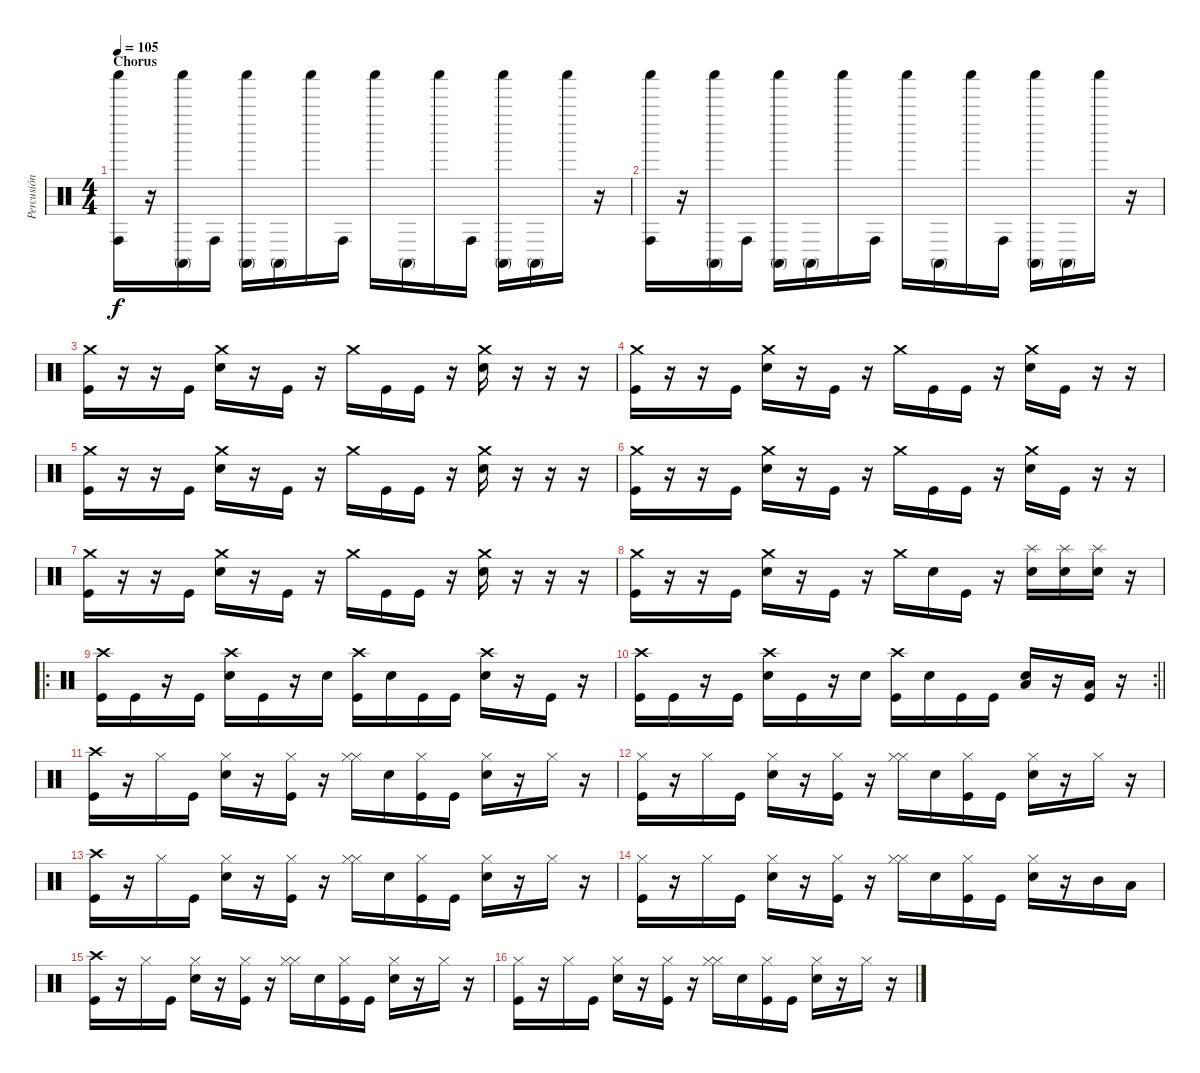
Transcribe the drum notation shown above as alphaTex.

\track ("Percusión" "Percusión") {instrument percussion}
\staff {score}
\articulation defaults
\ts (4 4)
\section ("" "Chorus")
\tempo 105
\clef neutral
\ks c
("Shaker (hit)" "Conga high (hit)").16{dy f volume 16} r.16 ("Shaker (hit)" "Conga high (mute)").16 "Conga high (hit)".16 ("Shaker (hit)" "Conga high (mute)").16 "Conga high (mute)".16 "Shaker (hit)".16 "Conga high (hit)".16 "Shaker (hit)".16 "Conga high (mute)".16 "Shaker (hit)".16 "Conga high (hit)".16 ("Shaker (hit)" "Conga high (mute)").16 "Conga high (mute)".16 "Shaker (hit)".16 r.16 |
("Shaker (hit)" "Conga high (hit)").16{volume 16} r.16 ("Shaker (hit)" "Conga high (mute)").16 "Conga high (hit)".16 ("Shaker (hit)" "Conga high (mute)").16 "Conga high (mute)".16 "Shaker (hit)".16 "Conga high (hit)".16 "Shaker (hit)".16 "Conga high (mute)".16 "Shaker (hit)".16 "Conga high (hit)".16 ("Shaker (hit)" "Conga high (mute)").16 "Conga high (mute)".16 "Shaker (hit)".16 r.16 |
("Crash medium (hit)" "Kick (hit)").16{volume 13} r.16 r.16 "Kick (hit)".16 ("Crash medium (hit)" "Electric Snare (hit)").16 r.16 "Kick (hit)".16 r.16 "Crash medium (hit)".16 "Kick (hit)".16 "Kick (hit)".16 r.16 ("Crash medium (hit)" "Electric Snare (hit)").16 r.16 r.16 r.16 |
("Crash medium (hit)" "Kick (hit)").16 r.16 r.16 "Kick (hit)".16 ("Crash medium (hit)" "Electric Snare (hit)").16 r.16 "Kick (hit)".16 r.16 "Crash medium (hit)".16 "Kick (hit)".16 "Kick (hit)".16 r.16 ("Crash medium (hit)" "Electric Snare (hit)").16 "Kick (hit)".16 r.16 r.16 |
("Crash medium (hit)" "Kick (hit)").16 r.16 r.16 "Kick (hit)".16 ("Crash medium (hit)" "Electric Snare (hit)").16 r.16 "Kick (hit)".16 r.16 "Crash medium (hit)".16 "Kick (hit)".16 "Kick (hit)".16 r.16 ("Crash medium (hit)" "Electric Snare (hit)").16 r.16 r.16 r.16 |
("Crash medium (hit)" "Kick (hit)").16 r.16 r.16 "Kick (hit)".16 ("Crash medium (hit)" "Electric Snare (hit)").16 r.16 "Kick (hit)".16 r.16 "Crash medium (hit)".16 "Kick (hit)".16 "Kick (hit)".16 r.16 ("Crash medium (hit)" "Electric Snare (hit)").16 "Kick (hit)".16 r.16 r.16 |
("Crash medium (hit)" "Kick (hit)").16 r.16 r.16 "Kick (hit)".16 ("Crash medium (hit)" "Electric Snare (hit)").16 r.16 "Kick (hit)".16 r.16 "Crash medium (hit)".16 "Kick (hit)".16 "Kick (hit)".16 r.16 ("Crash medium (hit)" "Electric Snare (hit)").16 r.16 r.16 r.16 |
("Crash medium (hit)" "Kick (hit)").16 r.16 r.16 "Kick (hit)".16 ("Crash medium (hit)" "Electric Snare (hit)").16 r.16 "Kick (hit)".16 r.16 "Crash medium (hit)".16 "Electric Snare (hit)".16 "Kick (hit)".16 r.16 ("Splash (hit)" "Electric Snare (hit)").16 ("Splash (hit)" "Electric Snare (hit)").16 ("Splash (hit)" "Electric Snare (hit)").16 r.16 |
\ro
("Crash high (hit)" "Kick (hit)").16 "Kick (hit)".16 r.16 "Kick (hit)".16 ("Crash high (hit)" "Electric Snare (hit)").16 "Kick (hit)".16 r.16 "Electric Snare (hit)".16 ("Crash high (hit)" "Kick (hit)").16 "Electric Snare (hit)".16 "Kick (hit)".16 "Kick (hit)".16 ("Crash high (hit)" "Electric Snare (hit)").16 r.16 "Kick (hit)".16 r.16 |
\rc 2
\barLineRight lightlight
("Crash high (hit)" "Kick (hit)").16 "Kick (hit)".16 r.16 "Kick (hit)".16 ("Crash high (hit)" "Electric Snare (hit)").16 "Kick (hit)".16 r.16 "Electric Snare (hit)".16 ("Crash high (hit)" "Kick (hit)").16 "Electric Snare (hit)".16 "Kick (hit)".16 "Kick (hit)".16 ("Low Floor Tom (hit)" "Electric Snare (hit)").16 r.16 ("Low Floor Tom (hit)" "Kick (hit)").16 r.16 |
("Crash high (hit)" "Kick (hit)").16 r.16 "Hi-Hat (closed)".16 "Kick (hit)".16 ("Hi-Hat (closed)" "Electric Snare (hit)").16 r.16 ("Hi-Hat (closed)" "Kick (hit)").16 r.16 ("Hi-Hat (closed)" "Hi-Hat (closed)").16 "Electric Snare (hit)".16 ("Hi-Hat (closed)" "Kick (hit)").16 "Kick (hit)".16 ("Hi-Hat (closed)" "Electric Snare (hit)").16 r.16 "Hi-Hat (closed)".16 r.16 |
("Hi-Hat (closed)" "Kick (hit)").16 r.16 "Hi-Hat (closed)".16 "Kick (hit)".16 ("Hi-Hat (closed)" "Electric Snare (hit)").16 r.16 ("Hi-Hat (closed)" "Kick (hit)").16 r.16 ("Hi-Hat (closed)" "Hi-Hat (closed)").16 "Electric Snare (hit)".16 ("Hi-Hat (closed)" "Kick (hit)").16 "Kick (hit)".16 ("Hi-Hat (closed)" "Electric Snare (hit)").16 r.16 "Hi-Hat (closed)".16 r.16 |
("Crash high (hit)" "Kick (hit)").16 r.16 "Hi-Hat (closed)".16 "Kick (hit)".16 ("Hi-Hat (closed)" "Electric Snare (hit)").16 r.16 ("Hi-Hat (closed)" "Kick (hit)").16 r.16 ("Hi-Hat (closed)" "Hi-Hat (closed)").16 "Electric Snare (hit)".16 ("Hi-Hat (closed)" "Kick (hit)").16 "Kick (hit)".16 ("Hi-Hat (closed)" "Electric Snare (hit)").16 r.16 "Hi-Hat (closed)".16 r.16 |
("Hi-Hat (closed)" "Kick (hit)").16 r.16 "Hi-Hat (closed)".16 "Kick (hit)".16 ("Hi-Hat (closed)" "Electric Snare (hit)").16 r.16 ("Hi-Hat (closed)" "Kick (hit)").16 r.16 ("Hi-Hat (closed)" "Hi-Hat (closed)").16 "Electric Snare (hit)".16 ("Hi-Hat (closed)" "Kick (hit)").16 "Kick (hit)".16 ("Hi-Hat (closed)" "Electric Snare (hit)").16 r.16 "Mid Tom (hit)".16 "Low Tom (hit)".16 |
("Crash high (hit)" "Kick (hit)").16 r.16 "Hi-Hat (closed)".16 "Kick (hit)".16 ("Hi-Hat (closed)" "Electric Snare (hit)").16 r.16 ("Hi-Hat (closed)" "Kick (hit)").16 r.16 ("Hi-Hat (closed)" "Hi-Hat (closed)").16 "Electric Snare (hit)".16 ("Hi-Hat (closed)" "Kick (hit)").16 "Kick (hit)".16 ("Hi-Hat (closed)" "Electric Snare (hit)").16 r.16 "Hi-Hat (closed)".16 r.16 |
("Hi-Hat (closed)" "Kick (hit)").16 r.16 "Hi-Hat (closed)".16 "Kick (hit)".16 ("Hi-Hat (closed)" "Electric Snare (hit)").16 r.16 ("Hi-Hat (closed)" "Kick (hit)").16 r.16 ("Hi-Hat (closed)" "Hi-Hat (closed)").16 "Electric Snare (hit)".16 ("Hi-Hat (closed)" "Kick (hit)").16 "Kick (hit)".16 ("Hi-Hat (closed)" "Electric Snare (hit)").16 r.16 "Hi-Hat (closed)".16 r.16
